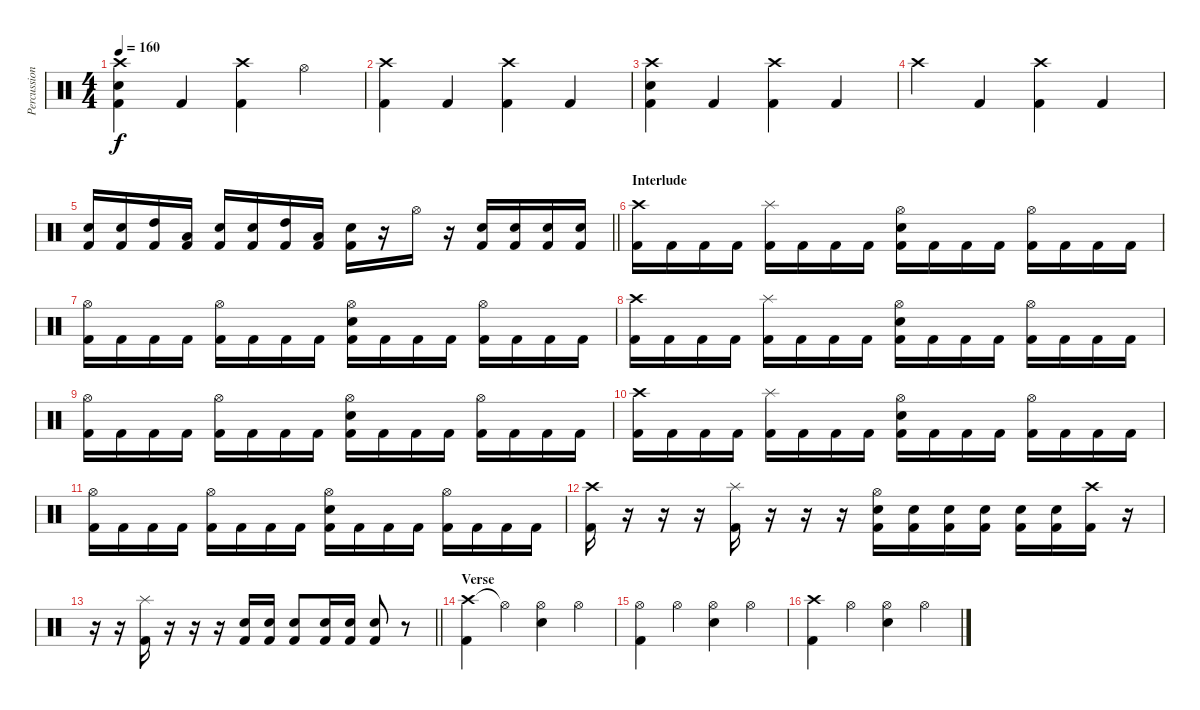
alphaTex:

\track ("Percussion" "Percussion") {instrument percussion}
\staff {score}
\articulation defaults
\ts (4 4)
\tempo 160
\clef neutral
\ks c
("Crash high (hit)" "Snare (hit) 2" "Kick (hit) 2").4{dy f} "Kick (hit) 2".4 ("Crash high (hit)" "Kick (hit) 2").4 "Hi-Hat (open)".4 |
("Crash high (hit)" "Kick (hit) 2").4 "Kick (hit) 2".4 ("Crash high (hit)" "Kick (hit) 2").4 "Kick (hit) 2".4 |
("Crash high (hit)" "Snare (hit) 2" "Kick (hit) 2").4 "Kick (hit) 2".4 ("Crash high (hit)" "Kick (hit) 2").4 "Kick (hit) 2".4 |
"Crash high (hit)".4 "Kick (hit) 2".4 ("Crash high (hit)" "Kick (hit) 2").4 "Kick (hit) 2".4 |
\barLineRight lightlight
("Snare (hit) 2" "Kick (hit) 2").16 ("Snare (hit) 2" "Kick (hit) 2").16 ("High Tom (hit)" "Kick (hit) 2").16 ("Low Tom (hit)" "Kick (hit) 2").16 ("Snare (hit) 2" "Kick (hit) 2").16 ("Snare (hit) 2" "Kick (hit) 2").16 ("High Tom (hit)" "Kick (hit) 2").16 ("Low Tom (hit)" "Kick (hit) 2").16 ("Snare (hit) 2" "Kick (hit) 2").16 r.16 "Hi-Hat (open)".16 r.16 ("Snare (hit) 2" "Kick (hit) 2").16 ("Snare (hit) 2" "Kick (hit) 2").16 ("Snare (hit) 2" "Kick (hit) 2").16 ("Snare (hit) 2" "Kick (hit) 2").16 |
\section ("" "Interlude")
("Crash high (hit)" "Kick (hit) 2").16 "Kick (hit) 2".16 "Kick (hit) 2".16 "Kick (hit) 2".16 ("Splash (hit)" "Kick (hit) 2").16 "Kick (hit) 2".16 "Kick (hit) 2".16 "Kick (hit) 2".16 ("Hi-Hat (open)" "Snare (hit) 2" "Kick (hit) 2").16 "Kick (hit) 2".16 "Kick (hit) 2".16 "Kick (hit) 2".16 ("Hi-Hat (open)" "Kick (hit) 2").16 "Kick (hit) 2".16 "Kick (hit) 2".16 "Kick (hit) 2".16 |
("Hi-Hat (open)" "Kick (hit) 2").16 "Kick (hit) 2".16 "Kick (hit) 2".16 "Kick (hit) 2".16 ("Hi-Hat (open)" "Kick (hit) 2").16 "Kick (hit) 2".16 "Kick (hit) 2".16 "Kick (hit) 2".16 ("Hi-Hat (open)" "Snare (hit) 2" "Kick (hit) 2").16 "Kick (hit) 2".16 "Kick (hit) 2".16 "Kick (hit) 2".16 ("Hi-Hat (open)" "Kick (hit) 2").16 "Kick (hit) 2".16 "Kick (hit) 2".16 "Kick (hit) 2".16 |
("Crash high (hit)" "Kick (hit) 2").16 "Kick (hit) 2".16 "Kick (hit) 2".16 "Kick (hit) 2".16 ("Splash (hit)" "Kick (hit) 2").16 "Kick (hit) 2".16 "Kick (hit) 2".16 "Kick (hit) 2".16 ("Hi-Hat (open)" "Snare (hit) 2" "Kick (hit) 2").16 "Kick (hit) 2".16 "Kick (hit) 2".16 "Kick (hit) 2".16 ("Hi-Hat (open)" "Kick (hit) 2").16 "Kick (hit) 2".16 "Kick (hit) 2".16 "Kick (hit) 2".16 |
("Hi-Hat (open)" "Kick (hit) 2").16 "Kick (hit) 2".16 "Kick (hit) 2".16 "Kick (hit) 2".16 ("Hi-Hat (open)" "Kick (hit) 2").16 "Kick (hit) 2".16 "Kick (hit) 2".16 "Kick (hit) 2".16 ("Hi-Hat (open)" "Snare (hit) 2" "Kick (hit) 2").16 "Kick (hit) 2".16 "Kick (hit) 2".16 "Kick (hit) 2".16 ("Hi-Hat (open)" "Kick (hit) 2").16 "Kick (hit) 2".16 "Kick (hit) 2".16 "Kick (hit) 2".16 |
("Crash high (hit)" "Kick (hit) 2").16 "Kick (hit) 2".16 "Kick (hit) 2".16 "Kick (hit) 2".16 ("Splash (hit)" "Kick (hit) 2").16 "Kick (hit) 2".16 "Kick (hit) 2".16 "Kick (hit) 2".16 ("Hi-Hat (open)" "Snare (hit) 2" "Kick (hit) 2").16 "Kick (hit) 2".16 "Kick (hit) 2".16 "Kick (hit) 2".16 ("Hi-Hat (open)" "Kick (hit) 2").16 "Kick (hit) 2".16 "Kick (hit) 2".16 "Kick (hit) 2".16 |
("Hi-Hat (open)" "Kick (hit) 2").16 "Kick (hit) 2".16 "Kick (hit) 2".16 "Kick (hit) 2".16 ("Hi-Hat (open)" "Kick (hit) 2").16 "Kick (hit) 2".16 "Kick (hit) 2".16 "Kick (hit) 2".16 ("Hi-Hat (open)" "Snare (hit) 2" "Kick (hit) 2").16 "Kick (hit) 2".16 "Kick (hit) 2".16 "Kick (hit) 2".16 ("Hi-Hat (open)" "Kick (hit) 2").16 "Kick (hit) 2".16 "Kick (hit) 2".16 "Kick (hit) 2".16 |
("Crash high (hit)" "Kick (hit) 2").16 r.16 r.16 r.16 ("Splash (hit)" "Kick (hit) 2").16 r.16 r.16 r.16 ("Hi-Hat (open)" "Snare (hit) 2" "Kick (hit) 2").16 ("Snare (hit) 2" "Kick (hit) 2").16 ("Snare (hit) 2" "Kick (hit) 2").16 ("Snare (hit) 2" "Kick (hit) 2").16 ("Snare (hit) 2" "Kick (hit) 2").16 ("Snare (hit) 2" "Kick (hit) 2").16 ("Crash high (hit)" "Kick (hit) 2").16 r.16 |
\barLineRight lightlight
r.16 r.16 ("Splash (hit)" "Kick (hit) 2").16 r.16 r.16 r.16 ("Snare (hit) 2" "Kick (hit) 2").16 ("Snare (hit) 2" "Kick (hit) 2").16 ("Snare (hit) 2" "Kick (hit) 2").8 ("Snare (hit) 2" "Kick (hit) 2").16 ("Snare (hit) 2" "Kick (hit) 2").16 ("Snare (hit) 2" "Kick (hit) 2").8 r.8 |
\section ("" "Verse")
("Crash high (hit)" "Kick (hit) 2").4 "Hi-Hat (open)"{t}.4 ("Hi-Hat (open)" "Snare (hit) 2").4 "Hi-Hat (open)".4 |
("Hi-Hat (open)" "Kick (hit) 2").4 "Hi-Hat (open)".4 ("Hi-Hat (open)" "Snare (hit) 2").4 "Hi-Hat (open)".4 |
("Crash high (hit)" "Kick (hit) 2").4 "Hi-Hat (open)".4 ("Hi-Hat (open)" "Snare (hit) 2").4 "Hi-Hat (open)".4
